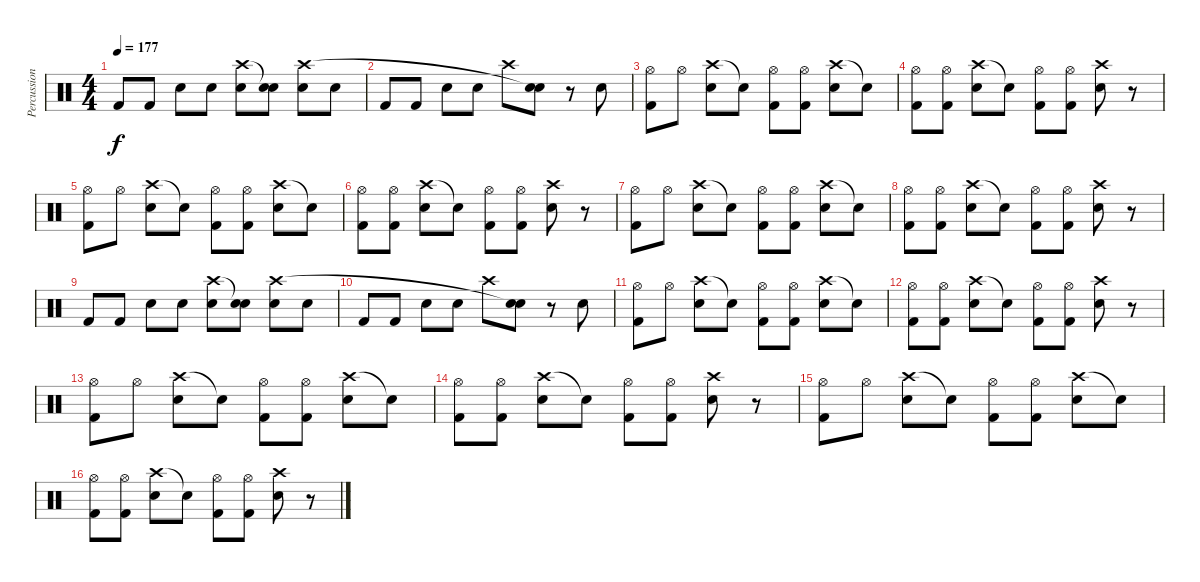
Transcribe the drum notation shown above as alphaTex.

\track ("Percussion" "Percussion") {instrument percussion}
\staff {score}
\articulation defaults
\ts (4 4)
\tempo 177
\clef neutral
\ks c "Kick (hit) 2".8{dy f} "Kick (hit) 2".8 "Electric Snare (hit)".8 "Electric Snare (hit)".8
("Electric Snare (hit)" "Crash high (hit)").8 ("Electric Snare (hit)" "Snare (hit)"{t}).8 ("Electric Snare (hit)" "Crash high (hit)").8 "Electric Snare (hit)".8 |
"Kick (hit) 2".8 "Kick (hit) 2".8 "Electric Snare (hit)".8 "Electric Snare (hit)".8 "Crash high (hit)".8 ("Electric Snare (hit)" "Snare (hit)"{t}).8 r.8 "Electric Snare (hit)".8 |
("Hi-Hat (open)" "Kick (hit) 2").8 "Hi-Hat (open)".8 ("Crash high (hit)" "Electric Snare (hit)").8 "Snare (hit)"{t}.8 ("Hi-Hat (open)" "Kick (hit) 2").8 ("Hi-Hat (open)" "Kick (hit) 2").8 ("Crash high (hit)" "Electric Snare (hit)").8 "Snare (hit)"{t}.8 |
("Hi-Hat (open)" "Kick (hit) 2").8 ("Hi-Hat (open)" "Kick (hit) 2").8 ("Crash high (hit)" "Electric Snare (hit)").8 "Snare (hit)"{t}.8 ("Hi-Hat (open)" "Kick (hit) 2").8 ("Hi-Hat (open)" "Kick (hit) 2").8 ("Crash high (hit)" "Electric Snare (hit)").8 r.8 |
("Hi-Hat (open)" "Kick (hit) 2").8 "Hi-Hat (open)".8 ("Crash high (hit)" "Electric Snare (hit)").8 "Snare (hit)"{t}.8 ("Hi-Hat (open)" "Kick (hit) 2").8 ("Hi-Hat (open)" "Kick (hit) 2").8 ("Crash high (hit)" "Electric Snare (hit)").8 "Snare (hit)"{t}.8 |
("Hi-Hat (open)" "Kick (hit) 2").8 ("Hi-Hat (open)" "Kick (hit) 2").8 ("Crash high (hit)" "Electric Snare (hit)").8 "Snare (hit)"{t}.8 ("Hi-Hat (open)" "Kick (hit) 2").8 ("Hi-Hat (open)" "Kick (hit) 2").8 ("Crash high (hit)" "Electric Snare (hit)").8 r.8 |
("Hi-Hat (open)" "Kick (hit) 2").8 "Hi-Hat (open)".8 ("Crash high (hit)" "Electric Snare (hit)").8 "Snare (hit)"{t}.8 ("Hi-Hat (open)" "Kick (hit) 2").8 ("Hi-Hat (open)" "Kick (hit) 2").8 ("Crash high (hit)" "Electric Snare (hit)").8 "Snare (hit)"{t}.8 |
("Hi-Hat (open)" "Kick (hit) 2").8 ("Hi-Hat (open)" "Kick (hit) 2").8 ("Crash high (hit)" "Electric Snare (hit)").8 "Snare (hit)"{t}.8 ("Hi-Hat (open)" "Kick (hit) 2").8 ("Hi-Hat (open)" "Kick (hit) 2").8 ("Crash high (hit)" "Electric Snare (hit)").8 r.8 |
"Kick (hit) 2".8 "Kick (hit) 2".8 "Electric Snare (hit)".8 "Electric Snare (hit)".8 ("Electric Snare (hit)" "Crash high (hit)").8 ("Electric Snare (hit)" "Snare (hit)"{t}).8 ("Electric Snare (hit)" "Crash high (hit)").8 "Electric Snare (hit)".8 |
"Kick (hit) 2".8 "Kick (hit) 2".8 "Electric Snare (hit)".8 "Electric Snare (hit)".8 "Crash high (hit)".8 ("Electric Snare (hit)" "Snare (hit)"{t}).8 r.8 "Electric Snare (hit)".8 |
("Hi-Hat (open)" "Kick (hit) 2").8 "Hi-Hat (open)".8 ("Crash high (hit)" "Electric Snare (hit)").8 "Snare (hit)"{t}.8 ("Hi-Hat (open)" "Kick (hit) 2").8 ("Hi-Hat (open)" "Kick (hit) 2").8 ("Crash high (hit)" "Electric Snare (hit)").8 "Snare (hit)"{t}.8 |
("Hi-Hat (open)" "Kick (hit) 2").8 ("Hi-Hat (open)" "Kick (hit) 2").8 ("Crash high (hit)" "Electric Snare (hit)").8 "Snare (hit)"{t}.8 ("Hi-Hat (open)" "Kick (hit) 2").8 ("Hi-Hat (open)" "Kick (hit) 2").8 ("Crash high (hit)" "Electric Snare (hit)").8 r.8 |
("Hi-Hat (open)" "Kick (hit) 2").8 "Hi-Hat (open)".8 ("Crash high (hit)" "Electric Snare (hit)").8 "Snare (hit)"{t}.8 ("Hi-Hat (open)" "Kick (hit) 2").8 ("Hi-Hat (open)" "Kick (hit) 2").8 ("Crash high (hit)" "Electric Snare (hit)").8 "Snare (hit)"{t}.8 |
("Hi-Hat (open)" "Kick (hit) 2").8 ("Hi-Hat (open)" "Kick (hit) 2").8 ("Crash high (hit)" "Electric Snare (hit)").8 "Snare (hit)"{t}.8 ("Hi-Hat (open)" "Kick (hit) 2").8 ("Hi-Hat (open)" "Kick (hit) 2").8 ("Crash high (hit)" "Electric Snare (hit)").8 r.8 |
("Hi-Hat (open)" "Kick (hit) 2").8 "Hi-Hat (open)".8 ("Crash high (hit)" "Electric Snare (hit)").8 "Snare (hit)"{t}.8 ("Hi-Hat (open)" "Kick (hit) 2").8 ("Hi-Hat (open)" "Kick (hit) 2").8 ("Crash high (hit)" "Electric Snare (hit)").8 "Snare (hit)"{t}.8 |
("Hi-Hat (open)" "Kick (hit) 2").8 ("Hi-Hat (open)" "Kick (hit) 2").8 ("Crash high (hit)" "Electric Snare (hit)").8 "Snare (hit)"{t}.8 ("Hi-Hat (open)" "Kick (hit) 2").8 ("Hi-Hat (open)" "Kick (hit) 2").8 ("Crash high (hit)" "Electric Snare (hit)").8 r.8
